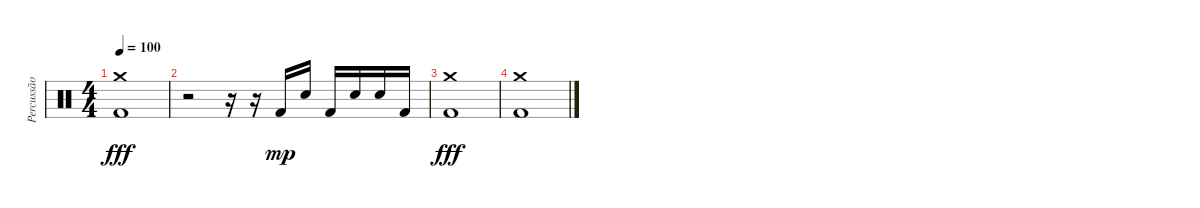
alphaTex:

\track ("Percussão" "Percussão") {instrument percussion}
\staff {score}
\articulation defaults
\ts (4 4)
\tempo 100
\clef neutral
\ks c
("Crash medium (hit)" "Kick (hit) 2").1{dy fff} |
r.2 r.16 r.16 "Kick (hit) 2".16{dy mp} "Snare (hit) 2".16 "Kick (hit) 2".16 "Snare (hit) 2".16 "Snare (hit) 2".16 "Kick (hit) 2".16 |
("Crash medium (hit)" "Kick (hit) 2").1{dy fff} |
("Crash medium (hit)" "Kick (hit) 2").1
